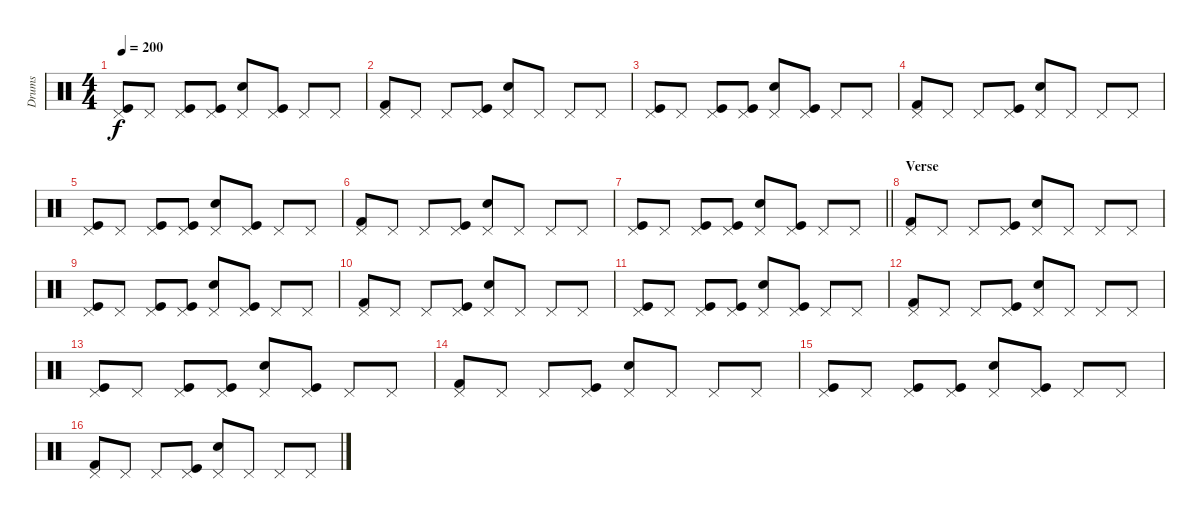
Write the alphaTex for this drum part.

\track ("Drums" "Drums") {instrument percussion}
\staff {score}
\articulation defaults
\ts (4 4)
\tempo 200
\clef neutral
\ks c
("Kick (hit)" "Pedal Hi-Hat (hit)").8{dy f} "Pedal Hi-Hat (hit)".8 ("Kick (hit)" "Pedal Hi-Hat (hit)").8 ("Kick (hit)" "Pedal Hi-Hat (hit)").8 ("Snare (hit) 2" "Pedal Hi-Hat (hit)").8 ("Kick (hit)" "Pedal Hi-Hat (hit)").8 "Pedal Hi-Hat (hit)".8 "Pedal Hi-Hat (hit)".8 |
("Kick (hit) 2" "Pedal Hi-Hat (hit)").8 "Pedal Hi-Hat (hit)".8 "Pedal Hi-Hat (hit)".8 ("Kick (hit)" "Pedal Hi-Hat (hit)").8 ("Snare (hit) 2" "Pedal Hi-Hat (hit)").8 "Pedal Hi-Hat (hit)".8 "Pedal Hi-Hat (hit)".8 "Pedal Hi-Hat (hit)".8 |
("Kick (hit)" "Pedal Hi-Hat (hit)").8 "Pedal Hi-Hat (hit)".8 ("Kick (hit)" "Pedal Hi-Hat (hit)").8 ("Kick (hit)" "Pedal Hi-Hat (hit)").8 ("Snare (hit) 2" "Pedal Hi-Hat (hit)").8 ("Kick (hit)" "Pedal Hi-Hat (hit)").8 "Pedal Hi-Hat (hit)".8 "Pedal Hi-Hat (hit)".8 |
("Kick (hit) 2" "Pedal Hi-Hat (hit)").8 "Pedal Hi-Hat (hit)".8 "Pedal Hi-Hat (hit)".8 ("Kick (hit)" "Pedal Hi-Hat (hit)").8 ("Snare (hit) 2" "Pedal Hi-Hat (hit)").8 "Pedal Hi-Hat (hit)".8 "Pedal Hi-Hat (hit)".8 "Pedal Hi-Hat (hit)".8 |
("Kick (hit)" "Pedal Hi-Hat (hit)").8 "Pedal Hi-Hat (hit)".8 ("Kick (hit)" "Pedal Hi-Hat (hit)").8 ("Kick (hit)" "Pedal Hi-Hat (hit)").8 ("Snare (hit) 2" "Pedal Hi-Hat (hit)").8 ("Kick (hit)" "Pedal Hi-Hat (hit)").8 "Pedal Hi-Hat (hit)".8 "Pedal Hi-Hat (hit)".8 |
("Kick (hit) 2" "Pedal Hi-Hat (hit)").8 "Pedal Hi-Hat (hit)".8 "Pedal Hi-Hat (hit)".8 ("Kick (hit)" "Pedal Hi-Hat (hit)").8 ("Snare (hit) 2" "Pedal Hi-Hat (hit)").8 "Pedal Hi-Hat (hit)".8 "Pedal Hi-Hat (hit)".8 "Pedal Hi-Hat (hit)".8 |
\barLineRight lightlight
("Kick (hit)" "Pedal Hi-Hat (hit)").8 "Pedal Hi-Hat (hit)".8 ("Kick (hit)" "Pedal Hi-Hat (hit)").8 ("Kick (hit)" "Pedal Hi-Hat (hit)").8 ("Snare (hit) 2" "Pedal Hi-Hat (hit)").8 ("Kick (hit)" "Pedal Hi-Hat (hit)").8 "Pedal Hi-Hat (hit)".8 "Pedal Hi-Hat (hit)".8 |
\section ("" "Verse")
("Kick (hit) 2" "Pedal Hi-Hat (hit)").8 "Pedal Hi-Hat (hit)".8 "Pedal Hi-Hat (hit)".8 ("Kick (hit)" "Pedal Hi-Hat (hit)").8 ("Snare (hit) 2" "Pedal Hi-Hat (hit)").8 "Pedal Hi-Hat (hit)".8 "Pedal Hi-Hat (hit)".8 "Pedal Hi-Hat (hit)".8 |
("Kick (hit)" "Pedal Hi-Hat (hit)").8 "Pedal Hi-Hat (hit)".8 ("Kick (hit)" "Pedal Hi-Hat (hit)").8 ("Kick (hit)" "Pedal Hi-Hat (hit)").8 ("Snare (hit) 2" "Pedal Hi-Hat (hit)").8 ("Kick (hit)" "Pedal Hi-Hat (hit)").8 "Pedal Hi-Hat (hit)".8 "Pedal Hi-Hat (hit)".8 |
("Kick (hit) 2" "Pedal Hi-Hat (hit)").8 "Pedal Hi-Hat (hit)".8 "Pedal Hi-Hat (hit)".8 ("Kick (hit)" "Pedal Hi-Hat (hit)").8 ("Snare (hit) 2" "Pedal Hi-Hat (hit)").8 "Pedal Hi-Hat (hit)".8 "Pedal Hi-Hat (hit)".8 "Pedal Hi-Hat (hit)".8 |
("Kick (hit)" "Pedal Hi-Hat (hit)").8 "Pedal Hi-Hat (hit)".8 ("Kick (hit)" "Pedal Hi-Hat (hit)").8 ("Kick (hit)" "Pedal Hi-Hat (hit)").8 ("Snare (hit) 2" "Pedal Hi-Hat (hit)").8 ("Kick (hit)" "Pedal Hi-Hat (hit)").8 "Pedal Hi-Hat (hit)".8 "Pedal Hi-Hat (hit)".8 |
("Kick (hit) 2" "Pedal Hi-Hat (hit)").8 "Pedal Hi-Hat (hit)".8 "Pedal Hi-Hat (hit)".8 ("Kick (hit)" "Pedal Hi-Hat (hit)").8 ("Snare (hit) 2" "Pedal Hi-Hat (hit)").8 "Pedal Hi-Hat (hit)".8 "Pedal Hi-Hat (hit)".8 "Pedal Hi-Hat (hit)".8 |
("Kick (hit)" "Pedal Hi-Hat (hit)").8 "Pedal Hi-Hat (hit)".8 ("Kick (hit)" "Pedal Hi-Hat (hit)").8 ("Kick (hit)" "Pedal Hi-Hat (hit)").8 ("Snare (hit) 2" "Pedal Hi-Hat (hit)").8 ("Kick (hit)" "Pedal Hi-Hat (hit)").8 "Pedal Hi-Hat (hit)".8 "Pedal Hi-Hat (hit)".8 |
("Kick (hit) 2" "Pedal Hi-Hat (hit)").8 "Pedal Hi-Hat (hit)".8 "Pedal Hi-Hat (hit)".8 ("Kick (hit)" "Pedal Hi-Hat (hit)").8 ("Snare (hit) 2" "Pedal Hi-Hat (hit)").8 "Pedal Hi-Hat (hit)".8 "Pedal Hi-Hat (hit)".8 "Pedal Hi-Hat (hit)".8 |
("Kick (hit)" "Pedal Hi-Hat (hit)").8 "Pedal Hi-Hat (hit)".8 ("Kick (hit)" "Pedal Hi-Hat (hit)").8 ("Kick (hit)" "Pedal Hi-Hat (hit)").8 ("Snare (hit) 2" "Pedal Hi-Hat (hit)").8 ("Kick (hit)" "Pedal Hi-Hat (hit)").8 "Pedal Hi-Hat (hit)".8 "Pedal Hi-Hat (hit)".8 |
("Kick (hit) 2" "Pedal Hi-Hat (hit)").8 "Pedal Hi-Hat (hit)".8 "Pedal Hi-Hat (hit)".8 ("Kick (hit)" "Pedal Hi-Hat (hit)").8 ("Snare (hit) 2" "Pedal Hi-Hat (hit)").8 "Pedal Hi-Hat (hit)".8 "Pedal Hi-Hat (hit)".8 "Pedal Hi-Hat (hit)".8
